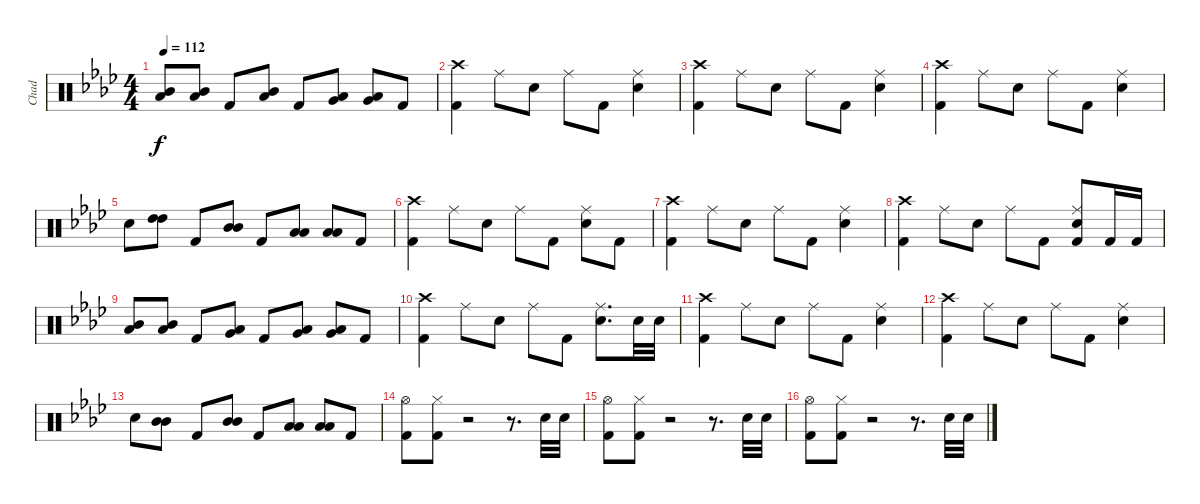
\track ("Chad" "Chad") {instrument percussion}
\staff {score}
\articulation defaults
\ts (4 4)
\tempo 112
\clef neutral
\ks ab
("Mid Tom (hit)" "Low Tom (hit)").8{dy f} ("Mid Tom (hit)" "Low Tom (hit)").8 "Kick (hit) 2".8 ("Mid Tom (hit)" "Low Tom (hit)").8 "Kick (hit) 2".8 ("Low Tom (hit)" "Very Low Tom (hit)").8 ("Low Tom (hit)" "Very Low Tom (hit)").8 "Kick (hit) 2".8 |
("Crash high (hit)" "Kick (hit) 2").4 "Ride (middle)".8 "Snare (hit) 2".8 "Ride (middle)".8 "Kick (hit) 2".8 ("Ride (middle)" "Snare (hit) 2").4 |
("Crash high (hit)" "Kick (hit) 2").4 "Ride (middle)".8 "Snare (hit) 2".8 "Ride (middle)".8 "Kick (hit) 2".8 ("Ride (middle)" "Snare (hit) 2").4 |
("Crash high (hit)" "Kick (hit) 2").4 "Ride (middle)".8 "Snare (hit) 2".8 "Ride (middle)".8 "Kick (hit) 2".8 ("Ride (middle)" "Snare (hit) 2").4 |
"Snare (hit) 2".8 ("High Tom (hit)" "High Tom (hit)").8 "Kick (hit) 2".8 ("Mid Tom (hit)" "Mid Tom (hit)").8 "Kick (hit) 2".8 ("Low Tom (hit)" "Low Tom (hit)").8 ("Low Tom (hit)" "Low Tom (hit)").8 "Kick (hit) 2".8 |
("Crash high (hit)" "Kick (hit) 2").4 "Ride (middle)".8 "Snare (hit) 2".8 "Ride (middle)".8 "Kick (hit) 2".8 ("Ride (middle)" "Snare (hit) 2").8 "Kick (hit) 2".8 |
("Crash high (hit)" "Kick (hit) 2").4 "Ride (middle)".8 "Snare (hit) 2".8 "Ride (middle)".8 "Kick (hit) 2".8 ("Ride (middle)" "Snare (hit) 2").4 |
("Crash high (hit)" "Kick (hit) 2").4 "Ride (middle)".8 "Snare (hit) 2".8 "Ride (middle)".8 "Kick (hit) 2".8 ("Ride (middle)" "Snare (hit) 2" "Kick (hit) 2").8 "Kick (hit) 2".16 "Kick (hit) 2".16 |
("Mid Tom (hit)" "Low Tom (hit)").8 ("Mid Tom (hit)" "Low Tom (hit)").8 "Kick (hit) 2".8 ("Low Tom (hit)" "Very Low Tom (hit)").8 "Kick (hit) 2".8 ("Low Tom (hit)" "Very Low Tom (hit)").8 ("Low Tom (hit)" "Very Low Tom (hit)").8 "Kick (hit) 2".8 |
("Crash high (hit)" "Kick (hit) 2").4 "Ride (middle)".8 "Snare (hit) 2".8 "Ride (middle)".8 "Kick (hit) 2".8 ("Ride (middle)" "Snare (hit) 2").8{d} "Snare (hit) 2".32 "Snare (hit) 2".32 |
("Crash high (hit)" "Kick (hit) 2").4 "Ride (middle)".8 "Snare (hit) 2".8 "Ride (middle)".8 "Kick (hit) 2".8 ("Ride (middle)" "Snare (hit) 2").4 |
("Crash high (hit)" "Kick (hit) 2").4 "Ride (middle)".8 "Snare (hit) 2".8 "Ride (middle)".8 "Kick (hit) 2".8 ("Ride (middle)" "Snare (hit) 2").4 |
"Snare (hit) 2".8 ("Mid Tom (hit)" "Mid Tom (hit)").8 "Kick (hit) 2".8 ("Mid Tom (hit)" "Mid Tom (hit)").8 "Kick (hit) 2".8 ("Low Tom (hit)" "Low Tom (hit)").8 ("Low Tom (hit)" "Low Tom (hit)").8 "Kick (hit) 2".8 |
("Hi-Hat (open)" "Kick (hit) 2").8 ("Hi-Hat (closed)" "Kick (hit) 2").8 r.2 r.8{d} "Snare (hit) 2".32 "Snare (hit) 2".32 |
("Hi-Hat (open)" "Kick (hit) 2").8 ("Hi-Hat (closed)" "Kick (hit) 2").8 r.2 r.8{d} "Snare (hit) 2".32 "Snare (hit) 2".32 |
("Hi-Hat (open)" "Kick (hit) 2").8 ("Hi-Hat (closed)" "Kick (hit) 2").8 r.2 r.8{d} "Snare (hit) 2".32 "Snare (hit) 2".32
